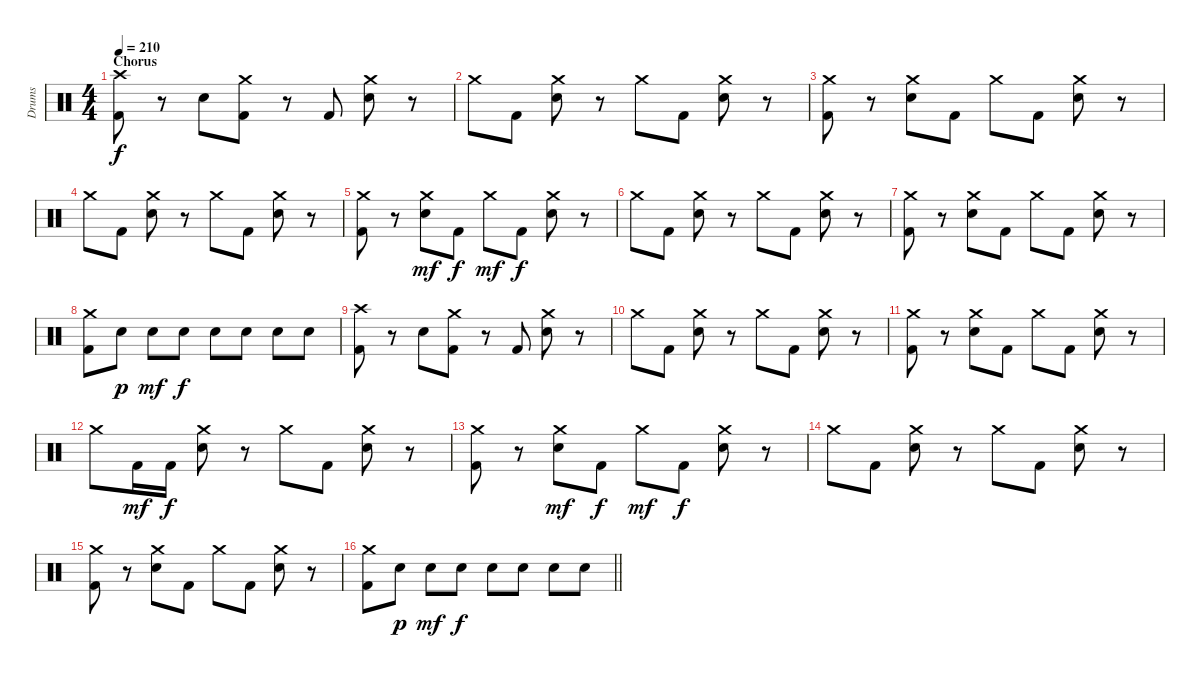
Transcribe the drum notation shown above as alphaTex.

\track ("Drums" "Drums") {instrument percussion}
\staff {score}
\articulation defaults
\ts (4 4)
\section ("" "Chorus")
\tempo 210
\clef neutral
\ks c
("Crash high (hit)" "Kick (hit) 2").8{dy f} r.8 "Electric Snare (hit)".8 ("Crash medium (hit)" "Kick (hit) 2").8 r.8 "Kick (hit) 2".8 ("Crash medium (hit)" "Electric Snare (hit)").8 r.8 |
"Crash medium (hit)".8 "Kick (hit) 2".8 ("Crash medium (hit)" "Electric Snare (hit)").8 r.8 "Crash medium (hit)".8 "Kick (hit) 2".8 ("Crash medium (hit)" "Electric Snare (hit)").8 r.8 |
("Crash medium (hit)" "Kick (hit) 2").8 r.8 ("Crash medium (hit)" "Electric Snare (hit)").8 "Kick (hit) 2".8 "Crash medium (hit)".8 "Kick (hit) 2".8 ("Crash medium (hit)" "Electric Snare (hit)").8 r.8 |
"Crash medium (hit)".8 "Kick (hit) 2".8 ("Crash medium (hit)" "Electric Snare (hit)").8 r.8 "Crash medium (hit)".8 "Kick (hit) 2".8 ("Crash medium (hit)" "Electric Snare (hit)").8 r.8 |
("Crash medium (hit)" "Kick (hit) 2").8 r.8 ("Crash medium (hit)" "Electric Snare (hit)").8{dy mf} "Kick (hit) 2".8{dy f} "Crash medium (hit)".8{dy mf} "Kick (hit) 2".8{dy f} ("Crash medium (hit)" "Electric Snare (hit)").8 r.8 |
"Crash medium (hit)".8 "Kick (hit) 2".8 ("Crash medium (hit)" "Electric Snare (hit)").8 r.8 "Crash medium (hit)".8 "Kick (hit) 2".8 ("Crash medium (hit)" "Electric Snare (hit)").8 r.8 |
("Crash medium (hit)" "Kick (hit) 2").8 r.8 ("Crash medium (hit)" "Electric Snare (hit)").8 "Kick (hit) 2".8 "Crash medium (hit)".8 "Kick (hit) 2".8 ("Crash medium (hit)" "Electric Snare (hit)").8 r.8 |
("Crash medium (hit)" "Kick (hit) 2").8 "Electric Snare (hit)".8{dy p} "Electric Snare (hit)".8{dy mf} "Electric Snare (hit)".8{dy f} "Electric Snare (hit)".8 "Electric Snare (hit)".8 "Electric Snare (hit)".8 "Electric Snare (hit)".8 |
("Crash high (hit)" "Kick (hit) 2").8 r.8 "Electric Snare (hit)".8 ("Crash medium (hit)" "Kick (hit) 2").8 r.8 "Kick (hit) 2".8 ("Crash medium (hit)" "Electric Snare (hit)").8 r.8 |
"Crash medium (hit)".8 "Kick (hit) 2".8 ("Crash medium (hit)" "Electric Snare (hit)").8 r.8 "Crash medium (hit)".8 "Kick (hit) 2".8 ("Crash medium (hit)" "Electric Snare (hit)").8 r.8 |
("Crash medium (hit)" "Kick (hit) 2").8 r.8 ("Crash medium (hit)" "Electric Snare (hit)").8 "Kick (hit) 2".8 "Crash medium (hit)".8 "Kick (hit) 2".8 ("Crash medium (hit)" "Electric Snare (hit)").8 r.8 |
"Crash medium (hit)".8 "Kick (hit) 2".16{dy mf} "Kick (hit) 2".16{dy f} ("Crash medium (hit)" "Electric Snare (hit)").8 r.8 "Crash medium (hit)".8 "Kick (hit) 2".8 ("Crash medium (hit)" "Electric Snare (hit)").8 r.8 |
("Crash medium (hit)" "Kick (hit) 2").8 r.8 ("Crash medium (hit)" "Electric Snare (hit)").8{dy mf} "Kick (hit) 2".8{dy f} "Crash medium (hit)".8{dy mf} "Kick (hit) 2".8{dy f} ("Crash medium (hit)" "Electric Snare (hit)").8 r.8 |
"Crash medium (hit)".8 "Kick (hit) 2".8 ("Crash medium (hit)" "Electric Snare (hit)").8 r.8 "Crash medium (hit)".8 "Kick (hit) 2".8 ("Crash medium (hit)" "Electric Snare (hit)").8 r.8 |
("Crash medium (hit)" "Kick (hit) 2").8 r.8 ("Crash medium (hit)" "Electric Snare (hit)").8 "Kick (hit) 2".8 "Crash medium (hit)".8 "Kick (hit) 2".8 ("Crash medium (hit)" "Electric Snare (hit)").8 r.8 |
\barLineRight lightlight
("Crash medium (hit)" "Kick (hit) 2").8 "Electric Snare (hit)".8{dy p} "Electric Snare (hit)".8{dy mf} "Electric Snare (hit)".8{dy f} "Electric Snare (hit)".8 "Electric Snare (hit)".8 "Electric Snare (hit)".8 "Electric Snare (hit)".8
